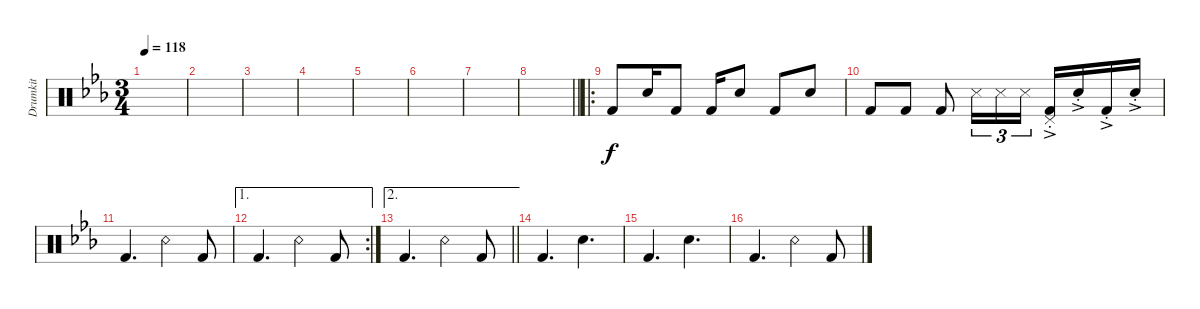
\track ("Drumkit" "Drumkit") {instrument percussion}
\staff {score}
\articulation defaults
\ts (3 4)
\tempo 118
\clef neutral
\ks cminor
|
|
|
|
|
|
|
\barLineRight lightlight
|
\ro "Kick (hit) 2".8 "Snare (hit) 2".16 "Kick (hit) 2".8 "Kick (hit) 2".16 "Snare (hit) 2".8 "Kick (hit) 2".8 "Snare (hit) 2".8
|
"Kick (hit) 2".8 "Kick (hit) 2".8 "Kick (hit) 2".8 "Snare (side stick) 3".16{tu (3 2)} "Snare (side stick) 3".16{tu (3 2)} "Snare (side stick) 3".16{tu (3 2)} ("Pedal Hi-Hat (hit)"{ac st} "Kick (hit) 2"{ac st}).16 "Snare (hit) 2"{ac st}.16 "Kick (hit) 2"{ac st}.16 "Snare (hit) 2"{ac st}.16 |
"Kick (hit) 2".4{d} "Snare (rim shot)".4 "Kick (hit) 2".8 |
\ae 1
\rc 2 "Kick (hit) 2".4{d} "Snare (rim shot)".4 "Kick (hit) 2".8
|
\ae 2
\barLineRight lightlight "Kick (hit) 2".4{d} "Snare (rim shot)".4 "Kick (hit) 2".8
|
"Kick (hit) 2".4{d} "Snare (hit) 2".4{d} |
"Kick (hit) 2".4{d} "Snare (hit) 2".4{d} |
"Kick (hit) 2".4{d} "Snare (rim shot)".4 "Kick (hit) 2".8
